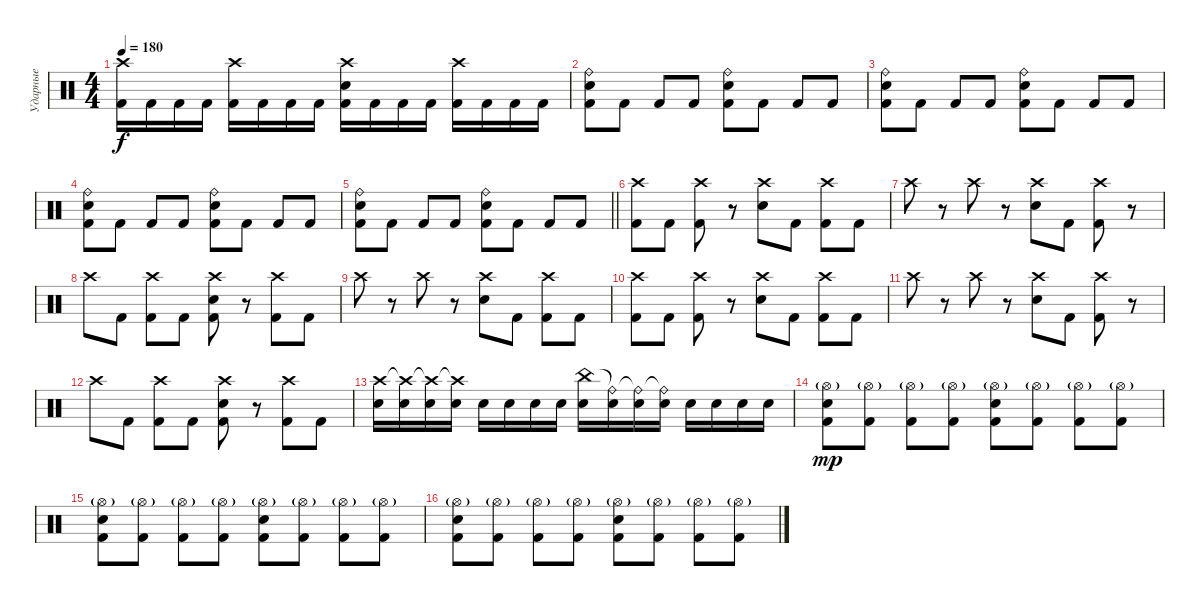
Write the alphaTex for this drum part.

\track ("Ударные" "Ударные") {instrument percussion}
\staff {score}
\articulation defaults
\ts (4 4)
\tempo 180
\clef neutral
\ks c
("Crash high (hit)" "Kick (hit) 2").16{dy f} "Kick (hit) 2".16 "Kick (hit) 2".16 "Kick (hit) 2".16 ("Crash high (hit)" "Kick (hit) 2").16 "Kick (hit) 2".16 "Kick (hit) 2".16 "Kick (hit) 2".16 ("Crash high (hit)" "Electric Snare (hit)" "Kick (hit) 2").16 "Kick (hit) 2".16 "Kick (hit) 2".16 "Kick (hit) 2".16 ("Crash high (hit)" "Kick (hit) 2").16 "Kick (hit) 2".16 "Kick (hit) 2".16 "Kick (hit) 2".16 |
("Ride (bell)" "Electric Snare (hit)" "Kick (hit) 2").8 "Kick (hit) 2".8 "Kick (hit) 2".8 "Kick (hit) 2".8 ("Ride (bell)" "Electric Snare (hit)" "Kick (hit) 2").8 "Kick (hit) 2".8 "Kick (hit) 2".8 "Kick (hit) 2".8 |
("Ride (bell)" "Electric Snare (hit)" "Kick (hit) 2").8 "Kick (hit) 2".8 "Kick (hit) 2".8 "Kick (hit) 2".8 ("Ride (bell)" "Electric Snare (hit)" "Kick (hit) 2").8 "Kick (hit) 2".8 "Kick (hit) 2".8 "Kick (hit) 2".8 |
("Ride (bell)" "Electric Snare (hit)" "Kick (hit) 2").8 "Kick (hit) 2".8 "Kick (hit) 2".8 "Kick (hit) 2".8 ("Ride (bell)" "Electric Snare (hit)" "Kick (hit) 2").8 "Kick (hit) 2".8 "Kick (hit) 2".8 "Kick (hit) 2".8 |
\barLineRight lightlight
("Ride (bell)" "Electric Snare (hit)" "Kick (hit) 2").8 "Kick (hit) 2".8 "Kick (hit) 2".8 "Kick (hit) 2".8 ("Ride (bell)" "Electric Snare (hit)" "Kick (hit) 2").8 "Kick (hit) 2".8 "Kick (hit) 2".8 "Kick (hit) 2".8 |
\section ("" "")
("Crash high (hit)" "Kick (hit) 2").8 "Kick (hit) 2".8 ("Crash high (hit)" "Kick (hit) 2").8 r.8 ("Crash high (hit)" "Electric Snare (hit)").8 "Kick (hit) 2".8 ("Crash high (hit)" "Kick (hit) 2").8 "Kick (hit) 2".8 |
"Crash high (hit)".8 r.8 "Crash high (hit)".8 r.8 ("Crash high (hit)" "Electric Snare (hit)").8 "Kick (hit) 2".8 ("Crash high (hit)" "Kick (hit) 2").8 r.8 |
"Crash high (hit)".8 "Kick (hit) 2".8 ("Crash high (hit)" "Kick (hit) 2").8 "Kick (hit) 2".8 ("Crash high (hit)" "Electric Snare (hit)" "Kick (hit) 2").8 r.8 ("Crash high (hit)" "Kick (hit) 2").8 "Kick (hit) 2".8 |
"Crash high (hit)".8 r.8 "Crash high (hit)".8 r.8 ("Crash high (hit)" "Electric Snare (hit)").8 "Kick (hit) 2".8 ("Crash high (hit)" "Kick (hit) 2").8 "Kick (hit) 2".8 |
("Crash high (hit)" "Kick (hit) 2").8 "Kick (hit) 2".8 ("Crash high (hit)" "Kick (hit) 2").8 r.8 ("Crash high (hit)" "Electric Snare (hit)").8 "Kick (hit) 2".8 ("Crash high (hit)" "Kick (hit) 2").8 "Kick (hit) 2".8 |
"Crash high (hit)".8 r.8 "Crash high (hit)".8 r.8 ("Crash high (hit)" "Electric Snare (hit)").8 "Kick (hit) 2".8 ("Crash high (hit)" "Kick (hit) 2").8 r.8 |
"Crash high (hit)".8 "Kick (hit) 2".8 ("Crash high (hit)" "Kick (hit) 2").8 "Kick (hit) 2".8 ("Crash high (hit)" "Electric Snare (hit)" "Kick (hit) 2").8 r.8 ("Crash high (hit)" "Kick (hit) 2").8 "Kick (hit) 2".8 |
("Crash high (hit)" "Electric Snare (hit)").16 ("Crash high (hit)"{t} "Electric Snare (hit)").16 ("Crash high (hit)"{t} "Electric Snare (hit)").16 ("Crash high (hit)"{t} "Electric Snare (hit)").16 "Electric Snare (hit)".16 "Electric Snare (hit)".16 "Electric Snare (hit)".16 "Electric Snare (hit)".16 ("China (hit)" "Snare (hit) 2").16 ("Ride (bell)"{t} "Snare (hit) 2").16 ("Ride (bell)"{t} "Snare (hit) 2").16 ("Ride (bell)"{t} "Snare (hit) 2").16 "Snare (hit) 2".16 "Snare (hit) 2".16 "Snare (hit) 2".16 "Snare (hit) 2".16 |
("Hi-Hat (open)"{g} "Electric Snare (hit)" "Kick (hit) 2").8{dy mp} ("Hi-Hat (open)"{g} "Kick (hit) 2").8 ("Hi-Hat (open)"{g} "Kick (hit) 2").8 ("Hi-Hat (open)"{g} "Kick (hit) 2").8 ("Hi-Hat (open)"{g} "Electric Snare (hit)" "Kick (hit) 2").8 ("Hi-Hat (open)"{g} "Kick (hit) 2").8 ("Hi-Hat (open)"{g} "Kick (hit) 2").8 ("Hi-Hat (open)"{g} "Kick (hit) 2").8 |
("Hi-Hat (open)"{g} "Electric Snare (hit)" "Kick (hit) 2").8 ("Hi-Hat (open)"{g} "Kick (hit) 2").8 ("Hi-Hat (open)"{g} "Kick (hit) 2").8 ("Hi-Hat (open)"{g} "Kick (hit) 2").8 ("Hi-Hat (open)"{g} "Electric Snare (hit)" "Kick (hit) 2").8 ("Hi-Hat (open)"{g} "Kick (hit) 2").8 ("Hi-Hat (open)"{g} "Kick (hit) 2").8 ("Hi-Hat (open)"{g} "Kick (hit) 2").8 |
("Hi-Hat (open)"{g} "Electric Snare (hit)" "Kick (hit) 2").8 ("Hi-Hat (open)"{g} "Kick (hit) 2").8 ("Hi-Hat (open)"{g} "Kick (hit) 2").8 ("Hi-Hat (open)"{g} "Kick (hit) 2").8 ("Hi-Hat (open)"{g} "Electric Snare (hit)" "Kick (hit) 2").8 ("Hi-Hat (open)"{g} "Kick (hit) 2").8 ("Hi-Hat (open)"{g} "Kick (hit) 2").8 ("Hi-Hat (open)"{g} "Kick (hit) 2").8
